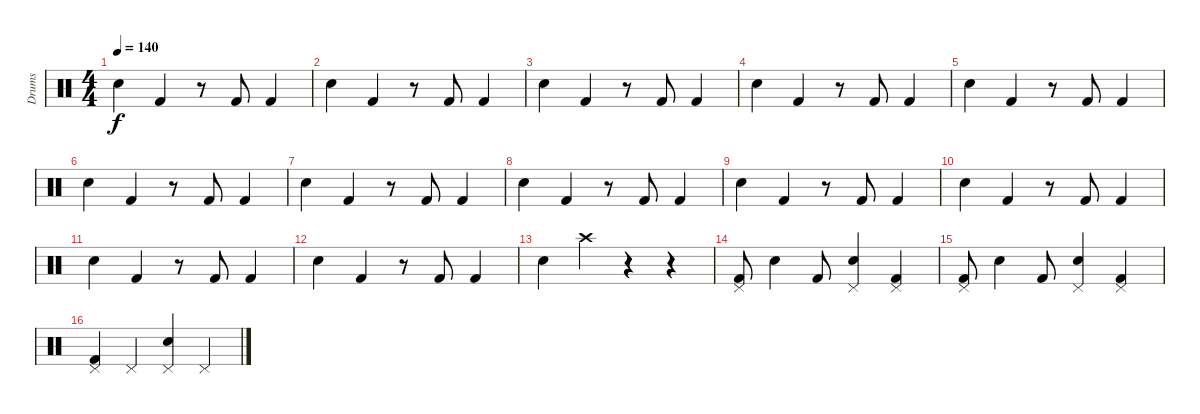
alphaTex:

\track ("Drums" "Drums") {instrument percussion}
\staff {score}
\articulation defaults
\ts (4 4)
\tempo 140
\clef neutral
\ks c "Electric Snare (hit)".4{dy f} "Kick (hit) 2".4
r.8 "Kick (hit) 2".8 "Kick (hit) 2".4 |
"Electric Snare (hit)".4 "Kick (hit) 2".4 r.8 "Kick (hit) 2".8 "Kick (hit) 2".4 |
"Electric Snare (hit)".4 "Kick (hit) 2".4 r.8 "Kick (hit) 2".8 "Kick (hit) 2".4 |
"Electric Snare (hit)".4 "Kick (hit) 2".4 r.8 "Kick (hit) 2".8 "Kick (hit) 2".4 |
"Electric Snare (hit)".4 "Kick (hit) 2".4 r.8 "Kick (hit) 2".8 "Kick (hit) 2".4 |
"Electric Snare (hit)".4 "Kick (hit) 2".4 r.8 "Kick (hit) 2".8 "Kick (hit) 2".4 |
"Electric Snare (hit)".4 "Kick (hit) 2".4 r.8 "Kick (hit) 2".8 "Kick (hit) 2".4 |
"Electric Snare (hit)".4 "Kick (hit) 2".4 r.8 "Kick (hit) 2".8 "Kick (hit) 2".4 |
"Electric Snare (hit)".4 "Kick (hit) 2".4 r.8 "Kick (hit) 2".8 "Kick (hit) 2".4 |
"Electric Snare (hit)".4 "Kick (hit) 2".4 r.8 "Kick (hit) 2".8 "Kick (hit) 2".4 |
"Electric Snare (hit)".4 "Kick (hit) 2".4 r.8 "Kick (hit) 2".8 "Kick (hit) 2".4 |
"Electric Snare (hit)".4 "Kick (hit) 2".4 r.8 "Kick (hit) 2".8 "Kick (hit) 2".4 |
"Electric Snare (hit)".4 "Crash high (hit)".4 r.4 r.4 |
("Pedal Hi-Hat (hit)" "Kick (hit) 2").8 "Electric Snare (hit)".4 "Kick (hit) 2".8 ("Pedal Hi-Hat (hit)" "Electric Snare (hit)").4 ("Pedal Hi-Hat (hit)" "Kick (hit) 2").4 |
("Pedal Hi-Hat (hit)" "Kick (hit) 2").8 "Electric Snare (hit)".4 "Kick (hit) 2".8 ("Pedal Hi-Hat (hit)" "Electric Snare (hit)").4 ("Pedal Hi-Hat (hit)" "Kick (hit) 2").4 |
("Pedal Hi-Hat (hit)" "Kick (hit) 2").4 "Pedal Hi-Hat (hit)".4 ("Pedal Hi-Hat (hit)" "Electric Snare (hit)").4 "Pedal Hi-Hat (hit)".4
